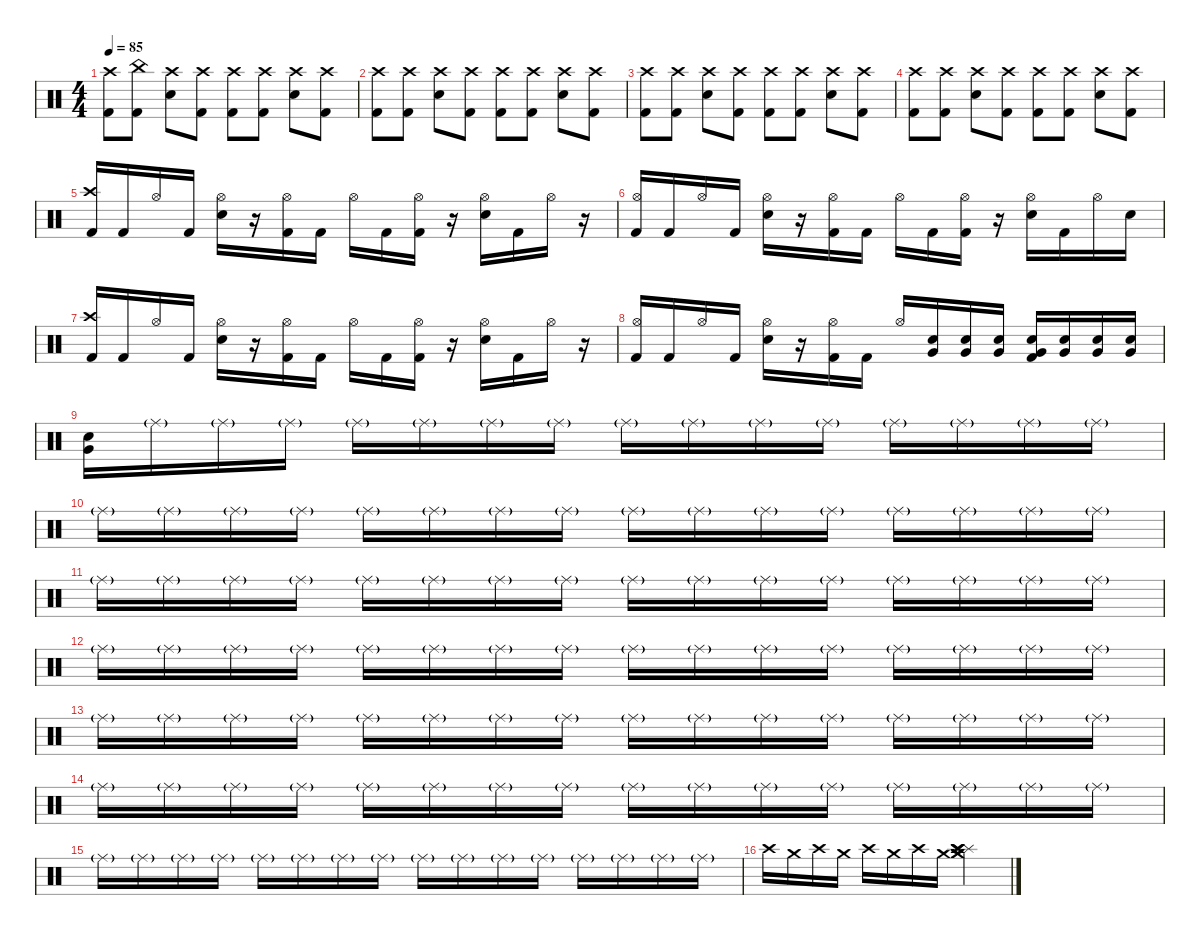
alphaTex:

\defaultSystemsLayout 4
\hideDynamics
\bracketExtendMode nobrackets
\singleTrackTrackNamePolicy hidden
\multiTrackTrackNamePolicy hidden
\firstSystemTrackNameMode fullname
\firstSystemTrackNameOrientation horizontal
\otherSystemsTrackNameOrientation horizontal
\track ("Drums" "drm.") {instrument percussion}
\staff {score}
\articulation defaults
\ts (4 4)
\tempo 85
\clef neutral
\ks c
("Crash high (hit)" "Kick (hit) 2").8{dy f beam Down} ("China (hit)" "Kick (hit) 2").8{beam Down} ("Crash high (hit)" "Snare (hit) 2").8{beam Down} ("Crash high (hit)" "Kick (hit) 2").8{beam Down} ("Crash high (hit)" "Kick (hit) 2").8{beam Down} ("Crash high (hit)" "Kick (hit) 2").8{beam Down} ("Crash high (hit)" "Snare (hit) 2").8{beam Down} ("Crash high (hit)" "Kick (hit) 2").8{beam Down} |
("Crash high (hit)" "Kick (hit) 2").8{beam Down} ("Crash high (hit)" "Kick (hit) 2").8{beam Down} ("Crash high (hit)" "Snare (hit) 2").8{beam Down} ("Crash high (hit)" "Kick (hit) 2").8{beam Down} ("Crash high (hit)" "Kick (hit) 2").8{beam Down} ("Crash high (hit)" "Kick (hit) 2").8{beam Down} ("Crash high (hit)" "Snare (hit) 2").8{beam Down} ("Crash high (hit)" "Kick (hit) 2").8{beam Down} |
("Crash high (hit)" "Kick (hit) 2").8{beam Down} ("Crash high (hit)" "Kick (hit) 2").8{beam Down} ("Crash high (hit)" "Snare (hit) 2").8{beam Down} ("Crash high (hit)" "Kick (hit) 2").8{beam Down} ("Crash high (hit)" "Kick (hit) 2").8{beam Down} ("Crash high (hit)" "Kick (hit) 2").8{beam Down} ("Crash high (hit)" "Snare (hit) 2").8{beam Down} ("Crash high (hit)" "Kick (hit) 2").8{beam Down} |
("Crash high (hit)" "Kick (hit) 2").8{beam Down} ("Crash high (hit)" "Kick (hit) 2").8{beam Down} ("Crash high (hit)" "Snare (hit) 2").8{beam Down} ("Crash high (hit)" "Kick (hit) 2").8{beam Down} ("Crash high (hit)" "Kick (hit) 2").8{beam Down} ("Crash high (hit)" "Kick (hit) 2").8{beam Down} ("Crash high (hit)" "Snare (hit) 2").8{beam Down} ("Crash high (hit)" "Kick (hit) 2").8{beam Down} |
("Crash high (hit)" "Kick (hit) 2").16{beam Up} "Kick (hit) 2".16{beam Up} "Hi-Hat (open)".16{dy mp beam Up} "Kick (hit) 2".16{dy f beam Up} ("Hi-Hat (open)" "Snare (hit) 2").16{dy mp beam Down} r.16{beam Down} ("Hi-Hat (open)" "Kick (hit) 2").16{beam Down} "Kick (hit) 2".16{dy f beam Down} "Hi-Hat (open)".16{dy mp beam Down} "Kick (hit) 2".16{dy f beam Down} ("Hi-Hat (open)" "Kick (hit) 2").16{dy mp beam Down} r.16{beam Down} ("Hi-Hat (open)" "Snare (hit) 2").16{beam Down} "Kick (hit) 2".16{dy f beam Down} "Hi-Hat (open)".16{dy mp beam Down} r.16{beam Down} |
("Hi-Hat (open)" "Kick (hit) 2").16{beam Up} "Kick (hit) 2".16{dy f beam Up} "Hi-Hat (open)".16{dy mp beam Up} "Kick (hit) 2".16{dy f beam Up} ("Hi-Hat (open)" "Snare (hit) 2").16{dy mp beam Down} r.16{beam Down} ("Hi-Hat (open)" "Kick (hit) 2").16{beam Down} "Kick (hit) 2".16{dy f beam Down} "Hi-Hat (open)".16{dy mp beam Down} "Kick (hit) 2".16{dy f beam Down} ("Hi-Hat (open)" "Kick (hit) 2").16{dy mp beam Down} r.16{beam Down} ("Hi-Hat (open)" "Snare (hit) 2").16{beam Down} "Kick (hit) 2".16{dy f beam Down} "Hi-Hat (open)".16{dy mp beam Down} "Snare (hit) 2".16{dy f beam Down} |
("Crash high (hit)" "Kick (hit) 2").16{beam Up} "Kick (hit) 2".16{beam Up} "Hi-Hat (open)".16{dy mp beam Up} "Kick (hit) 2".16{dy f beam Up} ("Hi-Hat (open)" "Snare (hit) 2").16{dy mp beam Down} r.16{beam Down} ("Hi-Hat (open)" "Kick (hit) 2").16{beam Down} "Kick (hit) 2".16{dy f beam Down} "Hi-Hat (open)".16{dy mp beam Down} "Kick (hit) 2".16{dy f beam Down} ("Hi-Hat (open)" "Kick (hit) 2").16{dy mp beam Down} r.16{beam Down} ("Hi-Hat (open)" "Snare (hit) 2").16{beam Down} "Kick (hit) 2".16{dy f beam Down} "Hi-Hat (open)".16{dy mp beam Down} r.16{beam Down} |
("Hi-Hat (open)" "Kick (hit) 2").16{beam Up} "Kick (hit) 2".16{dy f beam Up} "Hi-Hat (open)".16{dy mp beam Up} "Kick (hit) 2".16{dy f beam Up} ("Hi-Hat (open)" "Snare (hit) 2").16{dy mp beam Down} r.16{beam Down} ("Hi-Hat (open)" "Kick (hit) 2").16{beam Down} "Kick (hit) 2".16{dy f beam Down} "Hi-Hat (open)".16{dy mp beam Up} ("Snare (hit) 2" "Very Low Tom (hit)").16{dy pp beam Up} ("Snare (hit) 2" "Very Low Tom (hit)").16{dy p beam Up} ("Snare (hit) 2" "Very Low Tom (hit)").16{dy mp beam Up} ("Snare (hit) 2" "Very Low Tom (hit)" "Kick (hit) 2").16{dy mf beam Up} ("Snare (hit) 2" "Very Low Tom (hit)").16{dy f beam Up} ("Snare (hit) 2" "Very Low Tom (hit)").16{dy ff beam Up} ("Snare (hit) 2" "Very Low Tom (hit)").16{dy fff beam Up} |
("Snare (hit) 2" "Very Low Tom (hit)").16{dy f beam Down} "Ride (middle)"{g}.16{dy mf beam Down} "Ride (middle)"{g}.16{beam Down} "Ride (middle)"{g}.16{beam Down} "Ride (middle)"{g}.16{beam Down} "Ride (middle)"{g}.16{beam Down} "Ride (middle)"{g}.16{beam Down} "Ride (middle)"{g}.16{beam Down} "Ride (middle)"{g}.16{beam Down} "Ride (middle)"{g}.16{beam Down} "Ride (middle)"{g}.16{beam Down} "Ride (middle)"{g}.16{beam Down} "Ride (middle)"{g}.16{beam Down} "Ride (middle)"{g}.16{beam Down} "Ride (middle)"{g}.16{beam Down} "Ride (middle)"{g}.16{beam Down} |
"Ride (middle)"{g}.16{beam Down} "Ride (middle)"{g}.16{beam Down} "Ride (middle)"{g}.16{beam Down} "Ride (middle)"{g}.16{beam Down} "Ride (middle)"{g}.16{beam Down} "Ride (middle)"{g}.16{beam Down} "Ride (middle)"{g}.16{beam Down} "Ride (middle)"{g}.16{beam Down} "Ride (middle)"{g}.16{beam Down} "Ride (middle)"{g}.16{beam Down} "Ride (middle)"{g}.16{beam Down} "Ride (middle)"{g}.16{beam Down} "Ride (middle)"{g}.16{beam Down} "Ride (middle)"{g}.16{beam Down} "Ride (middle)"{g}.16{beam Down} "Ride (middle)"{g}.16{beam Down} |
"Ride (middle)"{g}.16{beam Down} "Ride (middle)"{g}.16{beam Down} "Ride (middle)"{g}.16{beam Down} "Ride (middle)"{g}.16{beam Down} "Ride (middle)"{g}.16{beam Down} "Ride (middle)"{g}.16{beam Down} "Ride (middle)"{g}.16{beam Down} "Ride (middle)"{g}.16{beam Down} "Ride (middle)"{g}.16{beam Down} "Ride (middle)"{g}.16{beam Down} "Ride (middle)"{g}.16{beam Down} "Ride (middle)"{g}.16{beam Down} "Ride (middle)"{g}.16{beam Down} "Ride (middle)"{g}.16{beam Down} "Ride (middle)"{g}.16{beam Down} "Ride (middle)"{g}.16{beam Down} |
"Ride (middle)"{g}.16{beam Down} "Ride (middle)"{g}.16{beam Down} "Ride (middle)"{g}.16{beam Down} "Ride (middle)"{g}.16{beam Down} "Ride (middle)"{g}.16{beam Down} "Ride (middle)"{g}.16{beam Down} "Ride (middle)"{g}.16{beam Down} "Ride (middle)"{g}.16{beam Down} "Ride (middle)"{g}.16{beam Down} "Ride (middle)"{g}.16{beam Down} "Ride (middle)"{g}.16{beam Down} "Ride (middle)"{g}.16{beam Down} "Ride (middle)"{g}.16{beam Down} "Ride (middle)"{g}.16{beam Down} "Ride (middle)"{g}.16{beam Down} "Ride (middle)"{g}.16{beam Down} |
"Ride (middle)"{g}.16{beam Down} "Ride (middle)"{g}.16{beam Down} "Ride (middle)"{g}.16{beam Down} "Ride (middle)"{g}.16{beam Down} "Ride (middle)"{g}.16{beam Down} "Ride (middle)"{g}.16{beam Down} "Ride (middle)"{g}.16{beam Down} "Ride (middle)"{g}.16{beam Down} "Ride (middle)"{g}.16{beam Down} "Ride (middle)"{g}.16{beam Down} "Ride (middle)"{g}.16{beam Down} "Ride (middle)"{g}.16{beam Down} "Ride (middle)"{g}.16{beam Down} "Ride (middle)"{g}.16{beam Down} "Ride (middle)"{g}.16{beam Down} "Ride (middle)"{g}.16{beam Down} |
"Ride (middle)"{g}.16{beam Down} "Ride (middle)"{g}.16{beam Down} "Ride (middle)"{g}.16{beam Down} "Ride (middle)"{g}.16{beam Down} "Ride (middle)"{g}.16{beam Down} "Ride (middle)"{g}.16{beam Down} "Ride (middle)"{g}.16{beam Down} "Ride (middle)"{g}.16{beam Down} "Ride (middle)"{g}.16{beam Down} "Ride (middle)"{g}.16{beam Down} "Ride (middle)"{g}.16{beam Down} "Ride (middle)"{g}.16{beam Down} "Ride (middle)"{g}.16{beam Down} "Ride (middle)"{g}.16{beam Down} "Ride (middle)"{g}.16{beam Down} "Ride (middle)"{g}.16{beam Down} |
"Ride (middle)"{g}.16{beam Down} "Ride (middle)"{g}.16{beam Down} "Ride (middle)"{g}.16{beam Down} "Ride (middle)"{g}.16{beam Down} "Ride (middle)"{g}.16{beam Down} "Ride (middle)"{g}.16{beam Down} "Ride (middle)"{g}.16{beam Down} "Ride (middle)"{g}.16{beam Down} "Ride (middle)"{g}.16{beam Down} "Ride (middle)"{g}.16{beam Down} "Ride (middle)"{g}.16{beam Down} "Ride (middle)"{g}.16{beam Down} "Ride (middle)"{g}.16{beam Down} "Ride (middle)"{g}.16{beam Down} "Ride (middle)"{g}.16{beam Down} "Ride (middle)"{g}.16{beam Down} |
"Crash high (hit)".16{dy ppp beam Down} "Crash medium (hit)".16{dy pp beam Down} "Crash high (hit)".16{dy p beam Down} "Crash medium (hit)".16{dy mp beam Down} "Crash high (hit)".16{dy mf beam Down} "Crash medium (hit)".16{dy f beam Down} "Crash high (hit)".16{dy ff beam Down} "Crash medium (hit)".16{dy fff beam Down} ("Crash medium (hit)" "Splash (hit)" "Crash high (hit)" "Crash medium (hit)" "Splash (hit)" "Crash high (hit)").2{beam Down}
